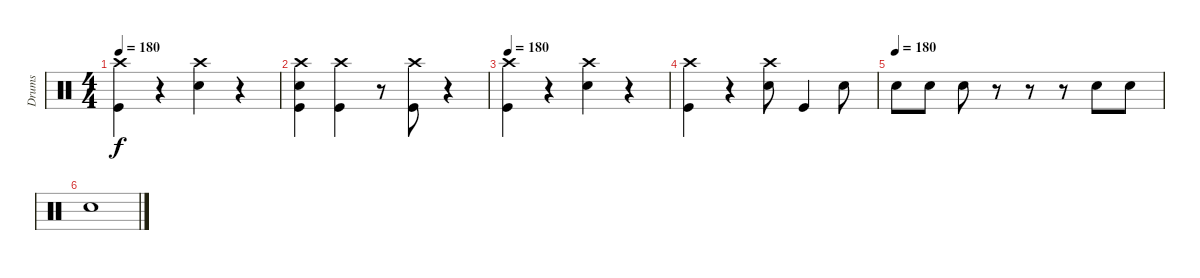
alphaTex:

\track ("Drums" "Drums") {instrument percussion}
\staff {score}
\articulation defaults
\ts (4 4)
\tempo 180
\clef neutral
\ks c
("Crash high (hit)" "Kick (hit)").4{dy f} r.4 ("Crash high (hit)" "Snare (hit) 2").4 r.4 |
("Crash high (hit)" "Snare (hit) 2" "Kick (hit)").4 ("Crash high (hit)" "Kick (hit)").4 r.8 ("Crash high (hit)" "Kick (hit)").8 r.4 |
\tempo 180
("Crash high (hit)" "Kick (hit)").4 r.4 ("Crash high (hit)" "Snare (hit) 2").4 r.4 |
("Crash high (hit)" "Kick (hit)").4 r.4 ("Crash high (hit)" "Snare (hit) 2").8 "Kick (hit)".4 "Snare (hit) 2".8 |
\tempo (180)
"Snare (hit) 2".8 "Snare (hit) 2".8 "Snare (hit) 2".8 r.8 r.8 r.8 "Snare (hit) 2".8 "Snare (hit) 2".8 |
"Snare (hit) 2".1
